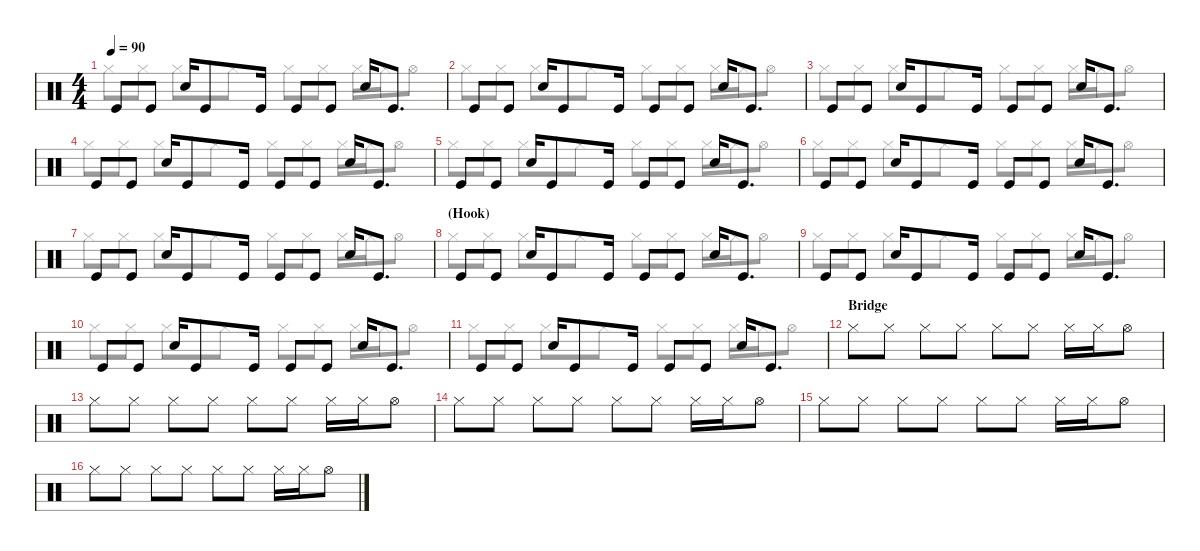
\defaultSystemsLayout 4
\hideDynamics
\bracketExtendMode nobrackets
\singleTrackTrackNamePolicy hidden
\multiTrackTrackNamePolicy hidden
\otherSystemsTrackNameOrientation horizontal
\track ("Drumkit" "drm.") {instrument percussion}
\staff {score}
\articulation defaults
\voice
\ts (4 4)
\tempo 90
\clef neutral
\ks c "Kick (hit)".8{dy f beam Up} "Kick (hit)".8{beam Up} "Snare (hit) 2".16{beam Up} "Kick (hit)".8{beam Up} "Kick (hit)".16{beam Up} "Kick (hit)".8{beam Up} "Kick (hit)".8{beam Up} "Snare (hit) 2".16{beam Up} "Kick (hit)".8{d beam Up}
|
"Kick (hit)".8{beam Up} "Kick (hit)".8{beam Up} "Snare (hit) 2".16{beam Up} "Kick (hit)".8{beam Up} "Kick (hit)".16{beam Up} "Kick (hit)".8{beam Up} "Kick (hit)".8{beam Up} "Snare (hit) 2".16{beam Up} "Kick (hit)".8{d beam Up} |
"Kick (hit)".8{beam Up} "Kick (hit)".8{beam Up} "Snare (hit) 2".16{beam Up} "Kick (hit)".8{beam Up} "Kick (hit)".16{beam Up} "Kick (hit)".8{beam Up} "Kick (hit)".8{beam Up} "Snare (hit) 2".16{beam Up} "Kick (hit)".8{d beam Up} |
"Kick (hit)".8{beam Up} "Kick (hit)".8{beam Up} "Snare (hit) 2".16{beam Up} "Kick (hit)".8{beam Up} "Kick (hit)".16{beam Up} "Kick (hit)".8{beam Up} "Kick (hit)".8{beam Up} "Snare (hit) 2".16{beam Up} "Kick (hit)".8{d beam Up} |
"Kick (hit)".8{beam Up} "Kick (hit)".8{beam Up} "Snare (hit) 2".16{beam Up} "Kick (hit)".8{beam Up} "Kick (hit)".16{beam Up} "Kick (hit)".8{beam Up} "Kick (hit)".8{beam Up} "Snare (hit) 2".16{beam Up} "Kick (hit)".8{d beam Up} |
"Kick (hit)".8{beam Up} "Kick (hit)".8{beam Up} "Snare (hit) 2".16{beam Up} "Kick (hit)".8{beam Up} "Kick (hit)".16{beam Up} "Kick (hit)".8{beam Up} "Kick (hit)".8{beam Up} "Snare (hit) 2".16{beam Up} "Kick (hit)".8{d beam Up} |
"Kick (hit)".8{beam Up} "Kick (hit)".8{beam Up} "Snare (hit) 2".16{beam Up} "Kick (hit)".8{beam Up} "Kick (hit)".16{beam Up} "Kick (hit)".8{beam Up} "Kick (hit)".8{beam Up} "Snare (hit) 2".16{beam Up} "Kick (hit)".8{d beam Up} |
\section ("" "(Hook)")
"Kick (hit)".8{beam Up} "Kick (hit)".8{beam Up} "Snare (hit) 2".16{beam Up} "Kick (hit)".8{beam Up} "Kick (hit)".16{beam Up} "Kick (hit)".8{beam Up} "Kick (hit)".8{beam Up} "Snare (hit) 2".16{beam Up} "Kick (hit)".8{d beam Up} |
"Kick (hit)".8{beam Up} "Kick (hit)".8{beam Up} "Snare (hit) 2".16{beam Up} "Kick (hit)".8{beam Up} "Kick (hit)".16{beam Up} "Kick (hit)".8{beam Up} "Kick (hit)".8{beam Up} "Snare (hit) 2".16{beam Up} "Kick (hit)".8{d beam Up} |
"Kick (hit)".8{beam Up} "Kick (hit)".8{beam Up} "Snare (hit) 2".16{beam Up} "Kick (hit)".8{beam Up} "Kick (hit)".16{beam Up} "Kick (hit)".8{beam Up} "Kick (hit)".8{beam Up} "Snare (hit) 2".16{beam Up} "Kick (hit)".8{d beam Up} |
"Kick (hit)".8{beam Up} "Kick (hit)".8{beam Up} "Snare (hit) 2".16{beam Up} "Kick (hit)".8{beam Up} "Kick (hit)".16{beam Up} "Kick (hit)".8{beam Up} "Kick (hit)".8{beam Up} "Snare (hit) 2".16{beam Up} "Kick (hit)".8{d beam Up} |
\section ("" "Bridge")
"Hi-Hat (closed)".8{beam Down} "Hi-Hat (closed)".8{beam Down} "Hi-Hat (closed)".8{beam Down} "Hi-Hat (closed)".8{beam Down} "Hi-Hat (closed)".8{beam Down} "Hi-Hat (closed)".8{beam Down} "Hi-Hat (closed)".16{beam Down} "Hi-Hat (closed)".16{beam Down} "Hi-Hat (open)".8{beam Down} |
"Hi-Hat (closed)".8{beam Down} "Hi-Hat (closed)".8{beam Down} "Hi-Hat (closed)".8{beam Down} "Hi-Hat (closed)".8{beam Down} "Hi-Hat (closed)".8{beam Down} "Hi-Hat (closed)".8{beam Down} "Hi-Hat (closed)".16{beam Down} "Hi-Hat (closed)".16{beam Down} "Hi-Hat (open)".8{beam Down} |
"Hi-Hat (closed)".8{beam Down} "Hi-Hat (closed)".8{beam Down} "Hi-Hat (closed)".8{beam Down} "Hi-Hat (closed)".8{beam Down} "Hi-Hat (closed)".8{beam Down} "Hi-Hat (closed)".8{beam Down} "Hi-Hat (closed)".16{beam Down} "Hi-Hat (closed)".16{beam Down} "Hi-Hat (open)".8{beam Down} |
"Hi-Hat (closed)".8{beam Down} "Hi-Hat (closed)".8{beam Down} "Hi-Hat (closed)".8{beam Down} "Hi-Hat (closed)".8{beam Down} "Hi-Hat (closed)".8{beam Down} "Hi-Hat (closed)".8{beam Down} "Hi-Hat (closed)".16{beam Down} "Hi-Hat (closed)".16{beam Down} "Hi-Hat (open)".8{beam Down} |
"Hi-Hat (closed)".8{beam Down} "Hi-Hat (closed)".8{beam Down} "Hi-Hat (closed)".8{beam Down} "Hi-Hat (closed)".8{beam Down} "Hi-Hat (closed)".8{beam Down} "Hi-Hat (closed)".8{beam Down} "Hi-Hat (closed)".16{beam Down} "Hi-Hat (closed)".16{beam Down} "Hi-Hat (open)".8{beam Down}
\voice
\clef neutral
\ottava regular
\simile none
\ks c "Hi-Hat (closed)".8{dy f beam Down} "Hi-Hat (closed)".8{beam Down} "Hi-Hat (closed)".8{beam Down} "Hi-Hat (closed)".8{beam Down} "Hi-Hat (closed)".8{beam Down} "Hi-Hat (closed)".8{beam Down} "Hi-Hat (closed)".16{beam Down} "Hi-Hat (closed)".16{beam Down} "Hi-Hat (open)".8{beam Down}
|
"Hi-Hat (closed)".8{beam Down} "Hi-Hat (closed)".8{beam Down} "Hi-Hat (closed)".8{beam Down} "Hi-Hat (closed)".8{beam Down} "Hi-Hat (closed)".8{beam Down} "Hi-Hat (closed)".8{beam Down} "Hi-Hat (closed)".16{beam Down} "Hi-Hat (closed)".16{beam Down} "Hi-Hat (open)".8{beam Down} |
"Hi-Hat (closed)".8{beam Down} "Hi-Hat (closed)".8{beam Down} "Hi-Hat (closed)".8{beam Down} "Hi-Hat (closed)".8{beam Down} "Hi-Hat (closed)".8{beam Down} "Hi-Hat (closed)".8{beam Down} "Hi-Hat (closed)".16{beam Down} "Hi-Hat (closed)".16{beam Down} "Hi-Hat (open)".8{beam Down} |
"Hi-Hat (closed)".8{beam Down} "Hi-Hat (closed)".8{beam Down} "Hi-Hat (closed)".8{beam Down} "Hi-Hat (closed)".8{beam Down} "Hi-Hat (closed)".8{beam Down} "Hi-Hat (closed)".8{beam Down} "Hi-Hat (closed)".16{beam Down} "Hi-Hat (closed)".16{beam Down} "Hi-Hat (open)".8{beam Down} |
"Hi-Hat (closed)".8{beam Down} "Hi-Hat (closed)".8{beam Down} "Hi-Hat (closed)".8{beam Down} "Hi-Hat (closed)".8{beam Down} "Hi-Hat (closed)".8{beam Down} "Hi-Hat (closed)".8{beam Down} "Hi-Hat (closed)".16{beam Down} "Hi-Hat (closed)".16{beam Down} "Hi-Hat (open)".8{beam Down} |
"Hi-Hat (closed)".8{beam Down} "Hi-Hat (closed)".8{beam Down} "Hi-Hat (closed)".8{beam Down} "Hi-Hat (closed)".8{beam Down} "Hi-Hat (closed)".8{beam Down} "Hi-Hat (closed)".8{beam Down} "Hi-Hat (closed)".16{beam Down} "Hi-Hat (closed)".16{beam Down} "Hi-Hat (open)".8{beam Down} |
"Hi-Hat (closed)".8{beam Down} "Hi-Hat (closed)".8{beam Down} "Hi-Hat (closed)".8{beam Down} "Hi-Hat (closed)".8{beam Down} "Hi-Hat (closed)".8{beam Down} "Hi-Hat (closed)".8{beam Down} "Hi-Hat (closed)".16{beam Down} "Hi-Hat (closed)".16{beam Down} "Hi-Hat (open)".8{beam Down} |
"Hi-Hat (closed)".8{beam Down} "Hi-Hat (closed)".8{beam Down} "Hi-Hat (closed)".8{beam Down} "Hi-Hat (closed)".8{beam Down} "Hi-Hat (closed)".8{beam Down} "Hi-Hat (closed)".8{beam Down} "Hi-Hat (closed)".16{beam Down} "Hi-Hat (closed)".16{beam Down} "Hi-Hat (open)".8{beam Down} |
"Hi-Hat (closed)".8{beam Down} "Hi-Hat (closed)".8{beam Down} "Hi-Hat (closed)".8{beam Down} "Hi-Hat (closed)".8{beam Down} "Hi-Hat (closed)".8{beam Down} "Hi-Hat (closed)".8{beam Down} "Hi-Hat (closed)".16{beam Down} "Hi-Hat (closed)".16{beam Down} "Hi-Hat (open)".8{beam Down} |
"Hi-Hat (closed)".8{beam Down} "Hi-Hat (closed)".8{beam Down} "Hi-Hat (closed)".8{beam Down} "Hi-Hat (closed)".8{beam Down} "Hi-Hat (closed)".8{beam Down} "Hi-Hat (closed)".8{beam Down} "Hi-Hat (closed)".16{beam Down} "Hi-Hat (closed)".16{beam Down} "Hi-Hat (open)".8{beam Down} |
"Hi-Hat (closed)".8{beam Down} "Hi-Hat (closed)".8{beam Down} "Hi-Hat (closed)".8{beam Down} "Hi-Hat (closed)".8{beam Down} "Hi-Hat (closed)".8{beam Down} "Hi-Hat (closed)".8{beam Down} "Hi-Hat (closed)".16{beam Down} "Hi-Hat (closed)".16{beam Down} "Hi-Hat (open)".8{beam Down} |
|
|
|
|
